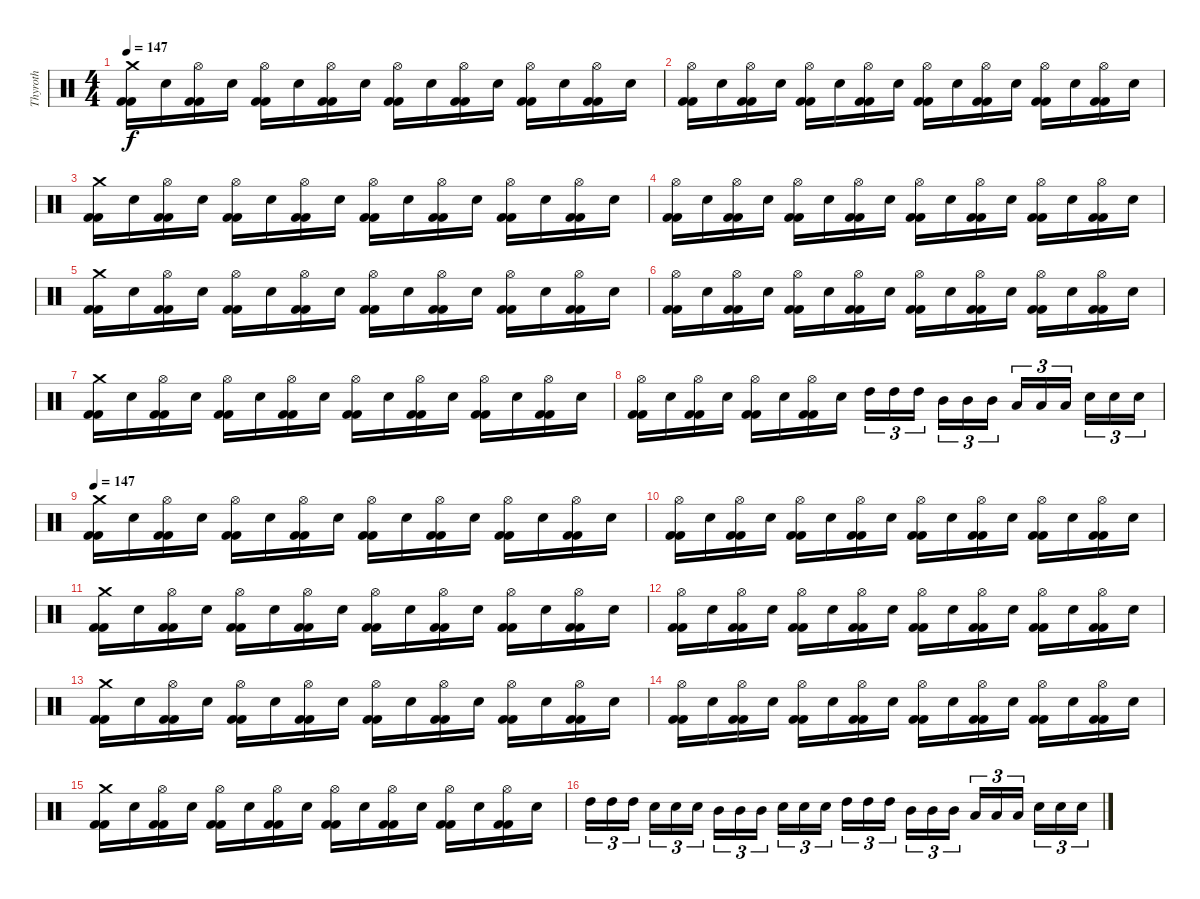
\track ("Thyroth" "Thyroth") {instrument percussion}
\staff {score}
\articulation defaults
\ts (4 4)
\tempo 147
\clef neutral
\ks c
("Kick (hit) 2" "Kick (hit) 2" "Crash medium (hit)").16{dy f} "Snare (hit) 2".16 ("Kick (hit) 2" "Kick (hit) 2" "Hi-Hat (open)").16 "Snare (hit) 2".16 ("Kick (hit) 2" "Kick (hit) 2" "Hi-Hat (open)").16 "Snare (hit) 2".16 ("Kick (hit) 2" "Kick (hit) 2" "Hi-Hat (open)").16 "Snare (hit) 2".16 ("Kick (hit) 2" "Kick (hit) 2" "Hi-Hat (open)").16 "Snare (hit) 2".16 ("Kick (hit) 2" "Kick (hit) 2" "Hi-Hat (open)").16 "Snare (hit) 2".16 ("Kick (hit) 2" "Kick (hit) 2" "Hi-Hat (open)").16 "Snare (hit) 2".16 ("Kick (hit) 2" "Kick (hit) 2" "Hi-Hat (open)").16 "Snare (hit) 2".16 |
("Kick (hit) 2" "Kick (hit) 2" "Hi-Hat (open)").16 "Snare (hit) 2".16 ("Kick (hit) 2" "Kick (hit) 2" "Hi-Hat (open)").16 "Snare (hit) 2".16 ("Kick (hit) 2" "Kick (hit) 2" "Hi-Hat (open)").16 "Snare (hit) 2".16 ("Kick (hit) 2" "Kick (hit) 2" "Hi-Hat (open)").16 "Snare (hit) 2".16 ("Kick (hit) 2" "Kick (hit) 2" "Hi-Hat (open)").16 "Snare (hit) 2".16 ("Kick (hit) 2" "Kick (hit) 2" "Hi-Hat (open)").16 "Snare (hit) 2".16 ("Kick (hit) 2" "Kick (hit) 2" "Hi-Hat (open)").16 "Snare (hit) 2".16 ("Kick (hit) 2" "Kick (hit) 2" "Hi-Hat (open)").16 "Snare (hit) 2".16 |
("Kick (hit) 2" "Kick (hit) 2" "Crash medium (hit)").16 "Snare (hit) 2".16 ("Kick (hit) 2" "Kick (hit) 2" "Hi-Hat (open)").16 "Snare (hit) 2".16 ("Kick (hit) 2" "Kick (hit) 2" "Hi-Hat (open)").16 "Snare (hit) 2".16 ("Kick (hit) 2" "Kick (hit) 2" "Hi-Hat (open)").16 "Snare (hit) 2".16 ("Kick (hit) 2" "Kick (hit) 2" "Hi-Hat (open)").16 "Snare (hit) 2".16 ("Kick (hit) 2" "Kick (hit) 2" "Hi-Hat (open)").16 "Snare (hit) 2".16 ("Kick (hit) 2" "Kick (hit) 2" "Hi-Hat (open)").16 "Snare (hit) 2".16 ("Kick (hit) 2" "Kick (hit) 2" "Hi-Hat (open)").16 "Snare (hit) 2".16 |
("Kick (hit) 2" "Kick (hit) 2" "Hi-Hat (open)").16 "Snare (hit) 2".16 ("Kick (hit) 2" "Kick (hit) 2" "Hi-Hat (open)").16 "Snare (hit) 2".16 ("Kick (hit) 2" "Kick (hit) 2" "Hi-Hat (open)").16 "Snare (hit) 2".16 ("Kick (hit) 2" "Kick (hit) 2" "Hi-Hat (open)").16 "Snare (hit) 2".16 ("Kick (hit) 2" "Kick (hit) 2" "Hi-Hat (open)").16 "Snare (hit) 2".16 ("Kick (hit) 2" "Kick (hit) 2" "Hi-Hat (open)").16 "Snare (hit) 2".16 ("Kick (hit) 2" "Kick (hit) 2" "Hi-Hat (open)").16 "Snare (hit) 2".16 ("Kick (hit) 2" "Kick (hit) 2" "Hi-Hat (open)").16 "Snare (hit) 2".16 |
("Kick (hit) 2" "Kick (hit) 2" "Crash medium (hit)").16 "Snare (hit) 2".16 ("Kick (hit) 2" "Kick (hit) 2" "Hi-Hat (open)").16 "Snare (hit) 2".16 ("Kick (hit) 2" "Kick (hit) 2" "Hi-Hat (open)").16 "Snare (hit) 2".16 ("Kick (hit) 2" "Kick (hit) 2" "Hi-Hat (open)").16 "Snare (hit) 2".16 ("Kick (hit) 2" "Kick (hit) 2" "Hi-Hat (open)").16 "Snare (hit) 2".16 ("Kick (hit) 2" "Kick (hit) 2" "Hi-Hat (open)").16 "Snare (hit) 2".16 ("Kick (hit) 2" "Kick (hit) 2" "Hi-Hat (open)").16 "Snare (hit) 2".16 ("Kick (hit) 2" "Kick (hit) 2" "Hi-Hat (open)").16 "Snare (hit) 2".16 |
("Kick (hit) 2" "Kick (hit) 2" "Hi-Hat (open)").16 "Snare (hit) 2".16 ("Kick (hit) 2" "Kick (hit) 2" "Hi-Hat (open)").16 "Snare (hit) 2".16 ("Kick (hit) 2" "Kick (hit) 2" "Hi-Hat (open)").16 "Snare (hit) 2".16 ("Kick (hit) 2" "Kick (hit) 2" "Hi-Hat (open)").16 "Snare (hit) 2".16 ("Kick (hit) 2" "Kick (hit) 2" "Hi-Hat (open)").16 "Snare (hit) 2".16 ("Kick (hit) 2" "Kick (hit) 2" "Hi-Hat (open)").16 "Snare (hit) 2".16 ("Kick (hit) 2" "Kick (hit) 2" "Hi-Hat (open)").16 "Snare (hit) 2".16 ("Kick (hit) 2" "Kick (hit) 2" "Hi-Hat (open)").16 "Snare (hit) 2".16 |
("Kick (hit) 2" "Kick (hit) 2" "Crash medium (hit)").16 "Snare (hit) 2".16 ("Kick (hit) 2" "Kick (hit) 2" "Hi-Hat (open)").16 "Snare (hit) 2".16 ("Kick (hit) 2" "Kick (hit) 2" "Hi-Hat (open)").16 "Snare (hit) 2".16 ("Kick (hit) 2" "Kick (hit) 2" "Hi-Hat (open)").16 "Snare (hit) 2".16 ("Kick (hit) 2" "Kick (hit) 2" "Hi-Hat (open)").16 "Snare (hit) 2".16 ("Kick (hit) 2" "Kick (hit) 2" "Hi-Hat (open)").16 "Snare (hit) 2".16 ("Kick (hit) 2" "Kick (hit) 2" "Hi-Hat (open)").16 "Snare (hit) 2".16 ("Kick (hit) 2" "Kick (hit) 2" "Hi-Hat (open)").16 "Snare (hit) 2".16 |
("Kick (hit) 2" "Kick (hit) 2" "Hi-Hat (open)").16 "Snare (hit) 2".16 ("Kick (hit) 2" "Kick (hit) 2" "Hi-Hat (open)").16 "Snare (hit) 2".16 ("Kick (hit) 2" "Kick (hit) 2" "Hi-Hat (open)").16 "Snare (hit) 2".16 ("Kick (hit) 2" "Kick (hit) 2" "Hi-Hat (open)").16 "Snare (hit) 2".16 "High Tom (hit)".16{tu (3 2)} "High Tom (hit)".16{tu (3 2)} "High Tom (hit)".16{tu (3 2)} "Mid Tom (hit)".16{tu (3 2)} "Mid Tom (hit)".16{tu (3 2)} "Mid Tom (hit)".16{tu (3 2)} "Low Tom (hit)".16{tu (3 2)} "Low Tom (hit)".16{tu (3 2)} "Low Tom (hit)".16{tu (3 2)} "Snare (hit) 2".16{tu (3 2)} "Snare (hit) 2".16{tu (3 2)} "Snare (hit) 2".16{tu (3 2)} |
\tempo 147
("Kick (hit) 2" "Kick (hit) 2" "Crash medium (hit)").16 "Snare (hit) 2".16 ("Kick (hit) 2" "Kick (hit) 2" "Hi-Hat (open)").16 "Snare (hit) 2".16 ("Kick (hit) 2" "Kick (hit) 2" "Hi-Hat (open)").16 "Snare (hit) 2".16 ("Kick (hit) 2" "Kick (hit) 2" "Hi-Hat (open)").16 "Snare (hit) 2".16 ("Kick (hit) 2" "Kick (hit) 2" "Hi-Hat (open)").16 "Snare (hit) 2".16 ("Kick (hit) 2" "Kick (hit) 2" "Hi-Hat (open)").16 "Snare (hit) 2".16 ("Kick (hit) 2" "Kick (hit) 2" "Hi-Hat (open)").16 "Snare (hit) 2".16 ("Kick (hit) 2" "Kick (hit) 2" "Hi-Hat (open)").16 "Snare (hit) 2".16 |
("Kick (hit) 2" "Kick (hit) 2" "Hi-Hat (open)").16 "Snare (hit) 2".16 ("Kick (hit) 2" "Kick (hit) 2" "Hi-Hat (open)").16 "Snare (hit) 2".16 ("Kick (hit) 2" "Kick (hit) 2" "Hi-Hat (open)").16 "Snare (hit) 2".16 ("Kick (hit) 2" "Kick (hit) 2" "Hi-Hat (open)").16 "Snare (hit) 2".16 ("Kick (hit) 2" "Kick (hit) 2" "Hi-Hat (open)").16 "Snare (hit) 2".16 ("Kick (hit) 2" "Kick (hit) 2" "Hi-Hat (open)").16 "Snare (hit) 2".16 ("Kick (hit) 2" "Kick (hit) 2" "Hi-Hat (open)").16 "Snare (hit) 2".16 ("Kick (hit) 2" "Kick (hit) 2" "Hi-Hat (open)").16 "Snare (hit) 2".16 |
("Kick (hit) 2" "Kick (hit) 2" "Crash medium (hit)").16 "Snare (hit) 2".16 ("Kick (hit) 2" "Kick (hit) 2" "Hi-Hat (open)").16 "Snare (hit) 2".16 ("Kick (hit) 2" "Kick (hit) 2" "Hi-Hat (open)").16 "Snare (hit) 2".16 ("Kick (hit) 2" "Kick (hit) 2" "Hi-Hat (open)").16 "Snare (hit) 2".16 ("Kick (hit) 2" "Kick (hit) 2" "Hi-Hat (open)").16 "Snare (hit) 2".16 ("Kick (hit) 2" "Kick (hit) 2" "Hi-Hat (open)").16 "Snare (hit) 2".16 ("Kick (hit) 2" "Kick (hit) 2" "Hi-Hat (open)").16 "Snare (hit) 2".16 ("Kick (hit) 2" "Kick (hit) 2" "Hi-Hat (open)").16 "Snare (hit) 2".16 |
("Kick (hit) 2" "Kick (hit) 2" "Hi-Hat (open)").16 "Snare (hit) 2".16 ("Kick (hit) 2" "Kick (hit) 2" "Hi-Hat (open)").16 "Snare (hit) 2".16 ("Kick (hit) 2" "Kick (hit) 2" "Hi-Hat (open)").16 "Snare (hit) 2".16 ("Kick (hit) 2" "Kick (hit) 2" "Hi-Hat (open)").16 "Snare (hit) 2".16 ("Kick (hit) 2" "Kick (hit) 2" "Hi-Hat (open)").16 "Snare (hit) 2".16 ("Kick (hit) 2" "Kick (hit) 2" "Hi-Hat (open)").16 "Snare (hit) 2".16 ("Kick (hit) 2" "Kick (hit) 2" "Hi-Hat (open)").16 "Snare (hit) 2".16 ("Kick (hit) 2" "Kick (hit) 2" "Hi-Hat (open)").16 "Snare (hit) 2".16 |
("Kick (hit) 2" "Kick (hit) 2" "Crash medium (hit)").16 "Snare (hit) 2".16 ("Kick (hit) 2" "Kick (hit) 2" "Hi-Hat (open)").16 "Snare (hit) 2".16 ("Kick (hit) 2" "Kick (hit) 2" "Hi-Hat (open)").16 "Snare (hit) 2".16 ("Kick (hit) 2" "Kick (hit) 2" "Hi-Hat (open)").16 "Snare (hit) 2".16 ("Kick (hit) 2" "Kick (hit) 2" "Hi-Hat (open)").16 "Snare (hit) 2".16 ("Kick (hit) 2" "Kick (hit) 2" "Hi-Hat (open)").16 "Snare (hit) 2".16 ("Kick (hit) 2" "Kick (hit) 2" "Hi-Hat (open)").16 "Snare (hit) 2".16 ("Kick (hit) 2" "Kick (hit) 2" "Hi-Hat (open)").16 "Snare (hit) 2".16 |
("Kick (hit) 2" "Kick (hit) 2" "Hi-Hat (open)").16 "Snare (hit) 2".16 ("Kick (hit) 2" "Kick (hit) 2" "Hi-Hat (open)").16 "Snare (hit) 2".16 ("Kick (hit) 2" "Kick (hit) 2" "Hi-Hat (open)").16 "Snare (hit) 2".16 ("Kick (hit) 2" "Kick (hit) 2" "Hi-Hat (open)").16 "Snare (hit) 2".16 ("Kick (hit) 2" "Kick (hit) 2" "Hi-Hat (open)").16 "Snare (hit) 2".16 ("Kick (hit) 2" "Kick (hit) 2" "Hi-Hat (open)").16 "Snare (hit) 2".16 ("Kick (hit) 2" "Kick (hit) 2" "Hi-Hat (open)").16 "Snare (hit) 2".16 ("Kick (hit) 2" "Kick (hit) 2" "Hi-Hat (open)").16 "Snare (hit) 2".16 |
("Kick (hit) 2" "Kick (hit) 2" "Crash medium (hit)").16 "Snare (hit) 2".16 ("Kick (hit) 2" "Kick (hit) 2" "Hi-Hat (open)").16 "Snare (hit) 2".16 ("Kick (hit) 2" "Kick (hit) 2" "Hi-Hat (open)").16 "Snare (hit) 2".16 ("Kick (hit) 2" "Kick (hit) 2" "Hi-Hat (open)").16 "Snare (hit) 2".16 ("Kick (hit) 2" "Kick (hit) 2" "Hi-Hat (open)").16 "Snare (hit) 2".16 ("Kick (hit) 2" "Kick (hit) 2" "Hi-Hat (open)").16 "Snare (hit) 2".16 ("Kick (hit) 2" "Kick (hit) 2" "Hi-Hat (open)").16 "Snare (hit) 2".16 ("Kick (hit) 2" "Kick (hit) 2" "Hi-Hat (open)").16 "Snare (hit) 2".16 |
"High Tom (hit)".16{tu (3 2)} "High Tom (hit)".16{tu (3 2)} "High Tom (hit)".16{tu (3 2)} "Snare (hit) 2".16{tu (3 2)} "Snare (hit) 2".16{tu (3 2)} "Snare (hit) 2".16{tu (3 2)} "Mid Tom (hit)".16{tu (3 2)} "Mid Tom (hit)".16{tu (3 2)} "Mid Tom (hit)".16{tu (3 2)} "Snare (hit) 2".16{tu (3 2)} "Snare (hit) 2".16{tu (3 2)} "Snare (hit) 2".16{tu (3 2)} "High Tom (hit)".16{tu (3 2)} "High Tom (hit)".16{tu (3 2)} "High Tom (hit)".16{tu (3 2)} "Mid Tom (hit)".16{tu (3 2)} "Mid Tom (hit)".16{tu (3 2)} "Mid Tom (hit)".16{tu (3 2)} "Low Tom (hit)".16{tu (3 2)} "Low Tom (hit)".16{tu (3 2)} "Low Tom (hit)".16{tu (3 2)} "Snare (hit) 2".16{tu (3 2)} "Snare (hit) 2".16{tu (3 2)} "Snare (hit) 2".16{tu (3 2)}
